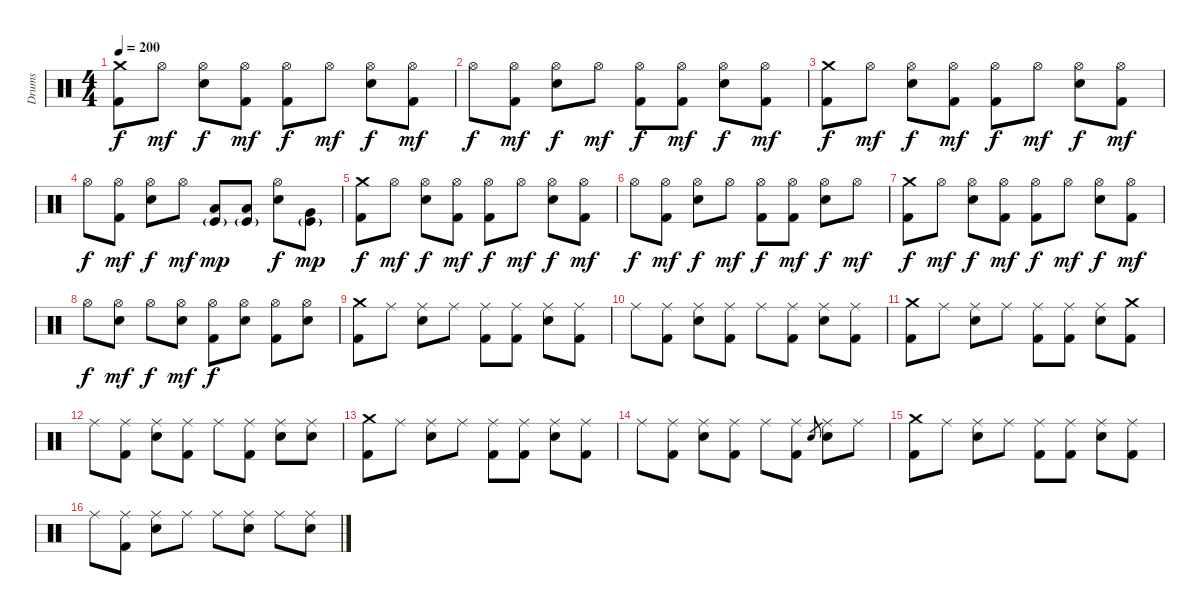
\track ("Drums" "Drums") {instrument percussion}
\staff {score}
\articulation defaults
\ts (4 4)
\tempo 200
\clef neutral
\ks c
("Crash medium (hit)" "Kick (hit) 2").8{dy f} "Hi-Hat (open)".8{dy mf} ("Hi-Hat (open)" "Electric Snare (hit)").8{dy f} ("Hi-Hat (open)" "Kick (hit) 2").8{dy mf} ("Hi-Hat (open)" "Kick (hit) 2").8{dy f} "Hi-Hat (open)".8{dy mf} ("Hi-Hat (open)" "Electric Snare (hit)").8{dy f} ("Hi-Hat (open)" "Kick (hit) 2").8{dy mf} |
"Hi-Hat (open)".8{dy f} ("Hi-Hat (open)" "Kick (hit) 2").8{dy mf} ("Hi-Hat (open)" "Electric Snare (hit)").8{dy f} "Hi-Hat (open)".8{dy mf} ("Hi-Hat (open)" "Kick (hit) 2").8{dy f} ("Hi-Hat (open)" "Kick (hit) 2").8{dy mf} ("Hi-Hat (open)" "Electric Snare (hit)").8{dy f} ("Hi-Hat (open)" "Kick (hit) 2").8{dy mf} |
("Crash medium (hit)" "Kick (hit) 2").8{dy f} "Hi-Hat (open)".8{dy mf} ("Hi-Hat (open)" "Electric Snare (hit)").8{dy f} ("Hi-Hat (open)" "Kick (hit) 2").8{dy mf} ("Hi-Hat (open)" "Kick (hit) 2").8{dy f} "Hi-Hat (open)".8{dy mf} ("Hi-Hat (open)" "Electric Snare (hit)").8{dy f} ("Hi-Hat (open)" "Kick (hit) 2").8{dy mf} |
"Hi-Hat (open)".8{dy f} ("Hi-Hat (open)" "Kick (hit) 2").8{dy mf} ("Hi-Hat (open)" "Electric Snare (hit)").8{dy f} "Hi-Hat (open)".8{dy mf} ("Low Tom (hit)" "Kick (hit)"{g}).8{dy mp} ("Low Tom (hit)" "Kick (hit)"{g}).8 ("Hi-Hat (open)" "Electric Snare (hit)").8{dy f} ("Very Low Tom (hit)" "Kick (hit)"{g}).8{dy mp} |
("Crash medium (hit)" "Kick (hit) 2").8{dy f} "Hi-Hat (open)".8{dy mf} ("Hi-Hat (open)" "Electric Snare (hit)").8{dy f} ("Hi-Hat (open)" "Kick (hit) 2").8{dy mf} ("Hi-Hat (open)" "Kick (hit) 2").8{dy f} "Hi-Hat (open)".8{dy mf} ("Hi-Hat (open)" "Electric Snare (hit)").8{dy f} ("Hi-Hat (open)" "Kick (hit) 2").8{dy mf} |
"Hi-Hat (open)".8{dy f} ("Hi-Hat (open)" "Kick (hit) 2").8{dy mf} ("Hi-Hat (open)" "Electric Snare (hit)").8{dy f} "Hi-Hat (open)".8{dy mf} ("Hi-Hat (open)" "Kick (hit) 2").8{dy f} ("Hi-Hat (open)" "Kick (hit) 2").8{dy mf} ("Hi-Hat (open)" "Electric Snare (hit)").8{dy f} "Hi-Hat (open)".8{dy mf} |
("Crash medium (hit)" "Kick (hit) 2").8{dy f} "Hi-Hat (open)".8{dy mf} ("Hi-Hat (open)" "Electric Snare (hit)").8{dy f} ("Hi-Hat (open)" "Kick (hit) 2").8{dy mf} ("Hi-Hat (open)" "Kick (hit) 2").8{dy f} "Hi-Hat (open)".8{dy mf} ("Hi-Hat (open)" "Electric Snare (hit)").8{dy f} ("Hi-Hat (open)" "Kick (hit) 2").8{dy mf} |
"Hi-Hat (open)".8{dy f} ("Hi-Hat (open)" "Electric Snare (hit)").8{dy mf} "Hi-Hat (open)".8{dy f} ("Hi-Hat (open)" "Electric Snare (hit)").8{dy mf} ("Hi-Hat (open)" "Kick (hit) 2").8{dy f} ("Hi-Hat (open)" "Electric Snare (hit)").8 ("Hi-Hat (open)" "Kick (hit) 2").8 ("Hi-Hat (open)" "Electric Snare (hit)").8 |
("Crash medium (hit)" "Kick (hit) 2").8 "Ride (middle)".8 ("Ride (middle)" "Electric Snare (hit)").8 "Ride (middle)".8 ("Ride (middle)" "Kick (hit) 2").8 ("Ride (middle)" "Kick (hit) 2").8 ("Ride (middle)" "Electric Snare (hit)").8 ("Ride (middle)" "Kick (hit) 2").8 |
"Ride (middle)".8 ("Ride (middle)" "Kick (hit) 2").8 ("Ride (middle)" "Electric Snare (hit)").8 ("Ride (middle)" "Kick (hit) 2").8 "Ride (middle)".8 ("Ride (middle)" "Kick (hit) 2").8 ("Ride (middle)" "Electric Snare (hit)").8 ("Ride (middle)" "Kick (hit) 2").8 |
("Crash medium (hit)" "Kick (hit) 2").8 "Ride (middle)".8 ("Ride (middle)" "Electric Snare (hit)").8 "Ride (middle)".8 ("Ride (middle)" "Kick (hit) 2").8 ("Ride (middle)" "Kick (hit) 2").8 ("Ride (middle)" "Electric Snare (hit)").8 ("Crash medium (hit)" "Kick (hit) 2").8 |
"Ride (middle)".8 ("Ride (middle)" "Kick (hit) 2").8 ("Ride (middle)" "Electric Snare (hit)").8 ("Ride (middle)" "Kick (hit) 2").8 "Ride (middle)".8 ("Ride (middle)" "Kick (hit) 2").8 ("Ride (middle)" "Electric Snare (hit)").8 ("Ride (middle)" "Electric Snare (hit)").8 |
("Crash medium (hit)" "Kick (hit) 2").8 "Ride (middle)".8 ("Ride (middle)" "Electric Snare (hit)").8 "Ride (middle)".8 ("Ride (middle)" "Kick (hit) 2").8 ("Ride (middle)" "Kick (hit) 2").8 ("Ride (middle)" "Electric Snare (hit)").8 ("Ride (middle)" "Kick (hit) 2").8 |
"Ride (middle)".8 ("Ride (middle)" "Kick (hit) 2").8 ("Ride (middle)" "Electric Snare (hit)").8 ("Ride (middle)" "Kick (hit) 2").8 "Ride (middle)".8 ("Ride (middle)" "Kick (hit) 2").8 "Electric Snare (hit)".8{gr} ("Ride (middle)" "Electric Snare (hit)").8 "Ride (middle)".8 |
("Crash medium (hit)" "Kick (hit) 2").8 "Ride (middle)".8 ("Ride (middle)" "Electric Snare (hit)").8 "Ride (middle)".8 ("Ride (middle)" "Kick (hit) 2").8 ("Ride (middle)" "Kick (hit) 2").8 ("Ride (middle)" "Electric Snare (hit)").8 ("Ride (middle)" "Kick (hit) 2").8 |
"Ride (middle)".8 ("Ride (middle)" "Kick (hit) 2").8 ("Ride (middle)" "Electric Snare (hit)").8 "Ride (middle)".8 "Ride (middle)".8 ("Ride (middle)" "Electric Snare (hit)").8 "Ride (middle)".8 ("Ride (middle)" "Electric Snare (hit)").8
